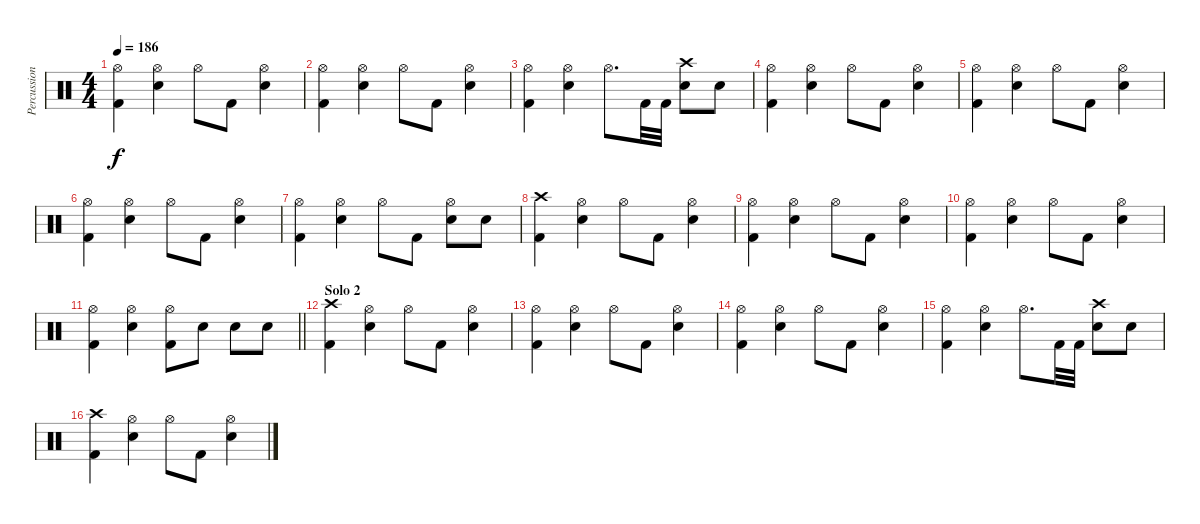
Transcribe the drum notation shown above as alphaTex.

\track ("Percussion" "Percussion") {instrument percussion}
\staff {score}
\articulation defaults
\ts (4 4)
\tempo 186
\clef neutral
\ks c
("Hi-Hat (open)" "Kick (hit) 2").4{dy f} ("Hi-Hat (open)" "Snare (hit) 2").4 "Hi-Hat (open)".8 "Kick (hit) 2".8 ("Hi-Hat (open)" "Snare (hit) 2").4 |
("Hi-Hat (open)" "Kick (hit) 2").4 ("Hi-Hat (open)" "Snare (hit) 2").4 "Hi-Hat (open)".8 "Kick (hit) 2".8 ("Hi-Hat (open)" "Snare (hit) 2").4 |
("Hi-Hat (open)" "Kick (hit) 2").4 ("Hi-Hat (open)" "Snare (hit) 2").4 "Hi-Hat (open)".8{d} "Kick (hit) 2".32 "Kick (hit) 2".32 ("Crash high (hit)" "Snare (hit) 2").8 "Snare (hit) 2".8 |
("Hi-Hat (open)" "Kick (hit) 2").4 ("Hi-Hat (open)" "Snare (hit) 2").4 "Hi-Hat (open)".8 "Kick (hit) 2".8 ("Hi-Hat (open)" "Snare (hit) 2").4 |
("Hi-Hat (open)" "Kick (hit) 2").4 ("Hi-Hat (open)" "Snare (hit) 2").4 "Hi-Hat (open)".8 "Kick (hit) 2".8 ("Hi-Hat (open)" "Snare (hit) 2").4 |
("Hi-Hat (open)" "Kick (hit) 2").4 ("Hi-Hat (open)" "Snare (hit) 2").4 "Hi-Hat (open)".8 "Kick (hit) 2".8 ("Hi-Hat (open)" "Snare (hit) 2").4 |
("Hi-Hat (open)" "Kick (hit) 2").4 ("Hi-Hat (open)" "Snare (hit) 2").4 "Hi-Hat (open)".8 "Kick (hit) 2".8 ("Hi-Hat (open)" "Snare (hit) 2").8 "Snare (hit) 2".8 |
("Crash high (hit)" "Kick (hit) 2").4 ("Hi-Hat (open)" "Snare (hit) 2").4 "Hi-Hat (open)".8 "Kick (hit) 2".8 ("Hi-Hat (open)" "Snare (hit) 2").4 |
("Hi-Hat (open)" "Kick (hit) 2").4 ("Hi-Hat (open)" "Snare (hit) 2").4 "Hi-Hat (open)".8 "Kick (hit) 2".8 ("Hi-Hat (open)" "Snare (hit) 2").4 |
("Hi-Hat (open)" "Kick (hit) 2").4 ("Hi-Hat (open)" "Snare (hit) 2").4 "Hi-Hat (open)".8 "Kick (hit) 2".8 ("Hi-Hat (open)" "Snare (hit) 2").4 |
\barLineRight lightlight
("Hi-Hat (open)" "Kick (hit) 2").4 ("Hi-Hat (open)" "Snare (hit) 2").4 ("Hi-Hat (open)" "Kick (hit) 2").8 "Snare (hit) 2".8 "Snare (hit) 2".8 "Snare (hit) 2".8 |
\section ("" "Solo 2")
("Crash high (hit)" "Kick (hit) 2").4 ("Hi-Hat (open)" "Snare (hit) 2").4 "Hi-Hat (open)".8 "Kick (hit) 2".8 ("Hi-Hat (open)" "Snare (hit) 2").4 |
("Hi-Hat (open)" "Kick (hit) 2").4 ("Hi-Hat (open)" "Snare (hit) 2").4 "Hi-Hat (open)".8 "Kick (hit) 2".8 ("Hi-Hat (open)" "Snare (hit) 2").4 |
("Hi-Hat (open)" "Kick (hit) 2").4 ("Hi-Hat (open)" "Snare (hit) 2").4 "Hi-Hat (open)".8 "Kick (hit) 2".8 ("Hi-Hat (open)" "Snare (hit) 2").4 |
("Hi-Hat (open)" "Kick (hit) 2").4 ("Hi-Hat (open)" "Snare (hit) 2").4 "Hi-Hat (open)".8{d} "Kick (hit) 2".32 "Kick (hit) 2".32 ("Crash high (hit)" "Snare (hit) 2").8 "Snare (hit) 2".8 |
("Crash high (hit)" "Kick (hit) 2").4 ("Hi-Hat (open)" "Snare (hit) 2").4 "Hi-Hat (open)".8 "Kick (hit) 2".8 ("Hi-Hat (open)" "Snare (hit) 2").4
